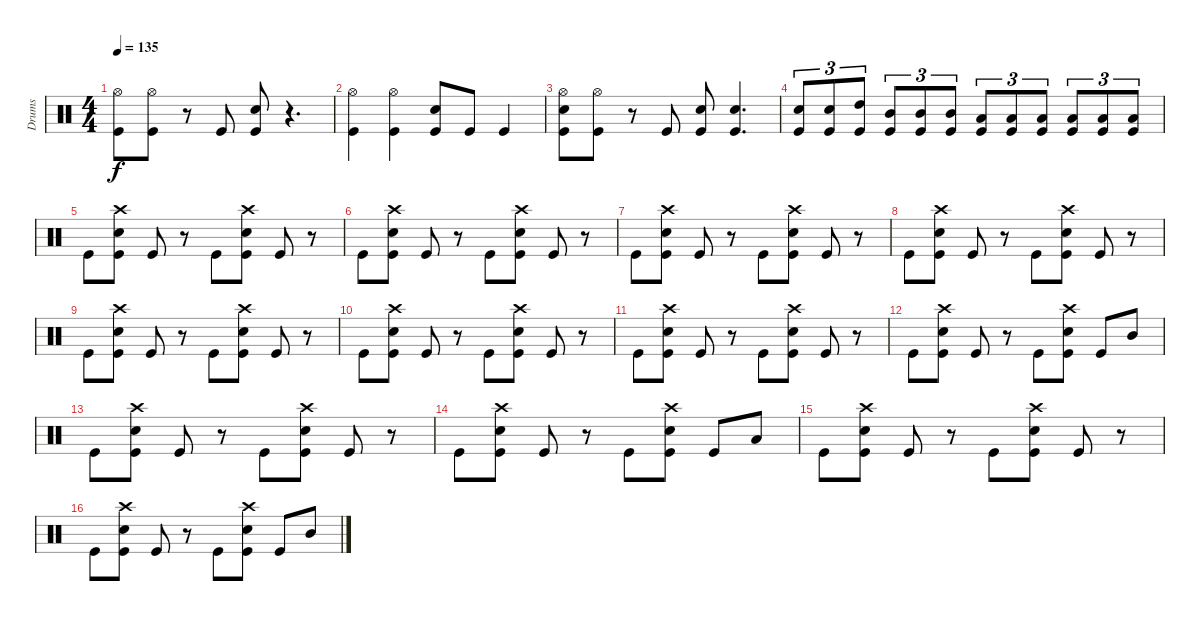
\track ("Drums" "Drums") {instrument percussion}
\staff {score}
\articulation defaults
\ts (4 4)
\tempo 135
\clef neutral
\ks c
("Hi-Hat (open)" "Kick (hit)").8{dy f} ("Hi-Hat (open)" "Kick (hit)").8 r.8 "Kick (hit)".8 ("Electric Snare (hit)" "Kick (hit)").8 r.4{d} |
("Hi-Hat (open)" "Kick (hit)").4 ("Hi-Hat (open)" "Kick (hit)").4 ("Electric Snare (hit)" "Kick (hit)").8 "Kick (hit)".8 "Kick (hit)".4 |
("Hi-Hat (open)" "Electric Snare (hit)" "Kick (hit)").8 ("Hi-Hat (open)" "Kick (hit)").8 r.8 "Kick (hit)".8 ("Electric Snare (hit)" "Kick (hit)").8 ("Electric Snare (hit)" "Kick (hit)").4{d} |
("Electric Snare (hit)" "Kick (hit)").8{tu (3 2)} ("Electric Snare (hit)" "Kick (hit)").8{tu (3 2)} ("High Tom (hit)" "Kick (hit)").8{tu (3 2)} ("Mid Tom (hit)" "Kick (hit)").8{tu (3 2)} ("Mid Tom (hit)" "Kick (hit)").8{tu (3 2)} ("Mid Tom (hit)" "Kick (hit)").8{tu (3 2)} ("Low Tom (hit)" "Kick (hit)").8{tu (3 2)} ("Low Tom (hit)" "Kick (hit)").8{tu (3 2)} ("Low Tom (hit)" "Kick (hit)").8{tu (3 2)} ("Low Tom (hit)" "Kick (hit)").8{tu (3 2)} ("Low Tom (hit)" "Kick (hit)").8{tu (3 2)} ("Low Tom (hit)" "Kick (hit)").8{tu (3 2)} |
"Kick (hit)".8 ("Crash high (hit)" "Electric Snare (hit)" "Kick (hit)").8 "Kick (hit)".8 r.8 "Kick (hit)".8 ("Crash high (hit)" "Electric Snare (hit)" "Kick (hit)").8 "Kick (hit)".8 r.8 |
"Kick (hit)".8 ("Crash high (hit)" "Electric Snare (hit)" "Kick (hit)").8 "Kick (hit)".8 r.8 "Kick (hit)".8 ("Crash high (hit)" "Electric Snare (hit)" "Kick (hit)").8 "Kick (hit)".8 r.8 |
"Kick (hit)".8 ("Crash high (hit)" "Electric Snare (hit)" "Kick (hit)").8 "Kick (hit)".8 r.8 "Kick (hit)".8 ("Crash high (hit)" "Electric Snare (hit)" "Kick (hit)").8 "Kick (hit)".8 r.8 |
"Kick (hit)".8 ("Crash high (hit)" "Electric Snare (hit)" "Kick (hit)").8 "Kick (hit)".8 r.8 "Kick (hit)".8 ("Crash high (hit)" "Electric Snare (hit)" "Kick (hit)").8 "Kick (hit)".8 r.8 |
"Kick (hit)".8 ("Crash high (hit)" "Electric Snare (hit)" "Kick (hit)").8 "Kick (hit)".8 r.8 "Kick (hit)".8 ("Crash high (hit)" "Electric Snare (hit)" "Kick (hit)").8 "Kick (hit)".8 r.8 |
"Kick (hit)".8 ("Crash high (hit)" "Electric Snare (hit)" "Kick (hit)").8 "Kick (hit)".8 r.8 "Kick (hit)".8 ("Crash high (hit)" "Electric Snare (hit)" "Kick (hit)").8 "Kick (hit)".8 r.8 |
"Kick (hit)".8 ("Crash high (hit)" "Electric Snare (hit)" "Kick (hit)").8 "Kick (hit)".8 r.8 "Kick (hit)".8 ("Crash high (hit)" "Electric Snare (hit)" "Kick (hit)").8 "Kick (hit)".8 r.8 |
"Kick (hit)".8 ("Crash high (hit)" "Electric Snare (hit)" "Kick (hit)").8 "Kick (hit)".8 r.8 "Kick (hit)".8 ("Crash high (hit)" "Electric Snare (hit)" "Kick (hit)").8 "Kick (hit)".8 "Mid Tom (hit)".8 |
"Kick (hit)".8 ("Crash high (hit)" "Electric Snare (hit)" "Kick (hit)").8 "Kick (hit)".8 r.8 "Kick (hit)".8 ("Crash high (hit)" "Electric Snare (hit)" "Kick (hit)").8 "Kick (hit)".8 r.8 |
"Kick (hit)".8 ("Crash high (hit)" "Electric Snare (hit)" "Kick (hit)").8 "Kick (hit)".8 r.8 "Kick (hit)".8 ("Crash high (hit)" "Electric Snare (hit)" "Kick (hit)").8 "Kick (hit)".8 "Low Tom (hit)".8 |
"Kick (hit)".8 ("Crash high (hit)" "Electric Snare (hit)" "Kick (hit)").8 "Kick (hit)".8 r.8 "Kick (hit)".8 ("Crash high (hit)" "Electric Snare (hit)" "Kick (hit)").8 "Kick (hit)".8 r.8 |
"Kick (hit)".8 ("Crash high (hit)" "Electric Snare (hit)" "Kick (hit)").8 "Kick (hit)".8 r.8 "Kick (hit)".8 ("Crash high (hit)" "Electric Snare (hit)" "Kick (hit)").8 "Kick (hit)".8 "Mid Tom (hit)".8
